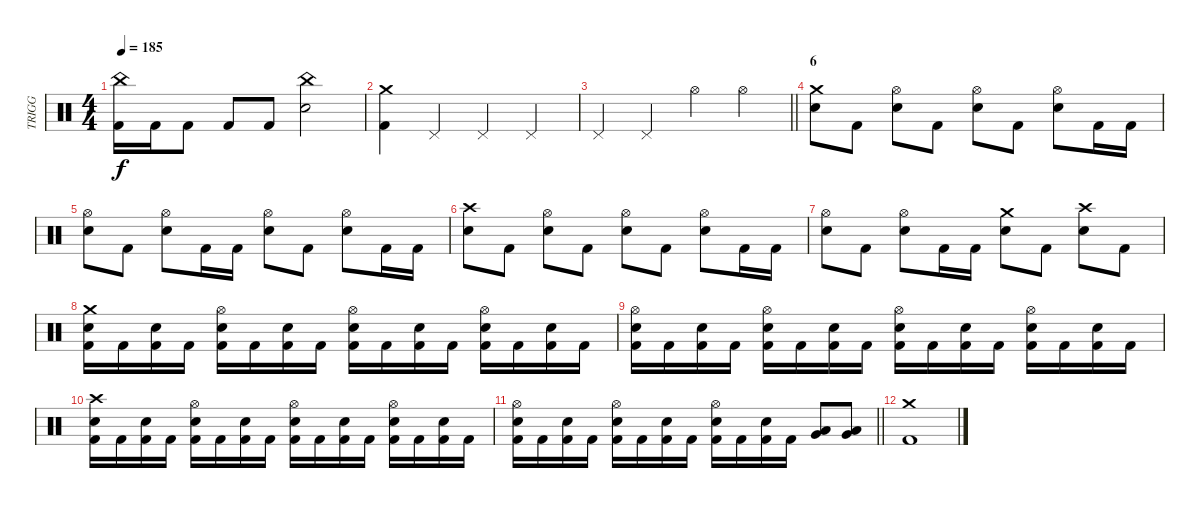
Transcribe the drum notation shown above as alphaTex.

\track ("TRIGG" "TRIGG") {instrument percussion}
\staff {score}
\articulation defaults
\ts (4 4)
\tempo 185
\clef neutral
\ks c
("China (hit)" "Kick (hit) 2").16{dy f} "Kick (hit) 2".16 "Kick (hit) 2".8 "Kick (hit) 2".8 "Kick (hit) 2".8 ("China (hit)" "Electric Snare (hit)").2 |
("Crash medium (hit)" "Kick (hit) 2").4 "Pedal Hi-Hat (hit)".4 "Pedal Hi-Hat (hit)".4 "Pedal Hi-Hat (hit)".4 |
\barLineRight lightlight "Pedal Hi-Hat (hit)".4 "Pedal Hi-Hat (hit)".4 "Hi-Hat (open)".4 "Hi-Hat (open)".4
|
\section ("" "6")
("Crash medium (hit)" "Electric Snare (hit)").8 "Kick (hit) 2".8 ("Hi-Hat (open)" "Electric Snare (hit)").8 "Kick (hit) 2".8 ("Hi-Hat (open)" "Electric Snare (hit)").8 "Kick (hit) 2".8 ("Hi-Hat (open)" "Electric Snare (hit)").8 "Kick (hit) 2".16 "Kick (hit) 2".16 |
("Hi-Hat (open)" "Electric Snare (hit)").8 "Kick (hit) 2".8 ("Hi-Hat (open)" "Electric Snare (hit)").8 "Kick (hit) 2".16 "Kick (hit) 2".16 ("Hi-Hat (open)" "Electric Snare (hit)").8 "Kick (hit) 2".8 ("Hi-Hat (open)" "Electric Snare (hit)").8 "Kick (hit) 2".16 "Kick (hit) 2".16 |
("Crash high (hit)" "Electric Snare (hit)").8 "Kick (hit) 2".8 ("Hi-Hat (open)" "Electric Snare (hit)").8 "Kick (hit) 2".8 ("Hi-Hat (open)" "Electric Snare (hit)").8 "Kick (hit) 2".8 ("Hi-Hat (open)" "Electric Snare (hit)").8 "Kick (hit) 2".16 "Kick (hit) 2".16 |
("Hi-Hat (open)" "Electric Snare (hit)").8 "Kick (hit) 2".8 ("Hi-Hat (open)" "Electric Snare (hit)").8 "Kick (hit) 2".16 "Kick (hit) 2".16 ("Crash medium (hit)" "Electric Snare (hit)").8 "Kick (hit) 2".8 ("Crash high (hit)" "Electric Snare (hit)").8 "Kick (hit) 2".8 |
("Crash medium (hit)" "Electric Snare (hit)" "Kick (hit) 2").16 "Kick (hit) 2".16 ("Electric Snare (hit)" "Kick (hit) 2").16 "Kick (hit) 2".16 ("Hi-Hat (open)" "Electric Snare (hit)" "Kick (hit) 2").16 "Kick (hit) 2".16 ("Electric Snare (hit)" "Kick (hit) 2").16 "Kick (hit) 2".16 ("Hi-Hat (open)" "Electric Snare (hit)" "Kick (hit) 2").16 "Kick (hit) 2".16 ("Electric Snare (hit)" "Kick (hit) 2").16 "Kick (hit) 2".16 ("Hi-Hat (open)" "Electric Snare (hit)" "Kick (hit) 2").16 "Kick (hit) 2".16 ("Electric Snare (hit)" "Kick (hit) 2").16 "Kick (hit) 2".16 |
("Hi-Hat (open)" "Electric Snare (hit)" "Kick (hit) 2").16 "Kick (hit) 2".16 ("Electric Snare (hit)" "Kick (hit) 2").16 "Kick (hit) 2".16 ("Hi-Hat (open)" "Electric Snare (hit)" "Kick (hit) 2").16 "Kick (hit) 2".16 ("Electric Snare (hit)" "Kick (hit) 2").16 "Kick (hit) 2".16 ("Hi-Hat (open)" "Electric Snare (hit)" "Kick (hit) 2").16 "Kick (hit) 2".16 ("Electric Snare (hit)" "Kick (hit) 2").16 "Kick (hit) 2".16 ("Hi-Hat (open)" "Electric Snare (hit)" "Kick (hit) 2").16 "Kick (hit) 2".16 ("Electric Snare (hit)" "Kick (hit) 2").16 "Kick (hit) 2".16 |
("Crash high (hit)" "Electric Snare (hit)" "Kick (hit) 2").16 "Kick (hit) 2".16 ("Electric Snare (hit)" "Kick (hit) 2").16 "Kick (hit) 2".16 ("Hi-Hat (open)" "Electric Snare (hit)" "Kick (hit) 2").16 "Kick (hit) 2".16 ("Electric Snare (hit)" "Kick (hit) 2").16 "Kick (hit) 2".16 ("Hi-Hat (open)" "Electric Snare (hit)" "Kick (hit) 2").16 "Kick (hit) 2".16 ("Electric Snare (hit)" "Kick (hit) 2").16 "Kick (hit) 2".16 ("Hi-Hat (open)" "Electric Snare (hit)" "Kick (hit) 2").16 "Kick (hit) 2".16 ("Electric Snare (hit)" "Kick (hit) 2").16 "Kick (hit) 2".16 |
\barLineRight lightlight
("Hi-Hat (open)" "Electric Snare (hit)" "Kick (hit) 2").16 "Kick (hit) 2".16 ("Electric Snare (hit)" "Kick (hit) 2").16 "Kick (hit) 2".16 ("Hi-Hat (open)" "Electric Snare (hit)" "Kick (hit) 2").16 "Kick (hit) 2".16 ("Electric Snare (hit)" "Kick (hit) 2").16 "Kick (hit) 2".16 ("Hi-Hat (open)" "Electric Snare (hit)" "Kick (hit) 2").16 "Kick (hit) 2".16 ("Electric Snare (hit)" "Kick (hit) 2").16 "Kick (hit) 2".16 ("Low Tom (hit)" "Very Low Tom (hit)").8 ("Very Low Tom (hit)" "Low Floor Tom (hit)").8 |
("Crash medium (hit)" "Kick (hit) 2").1
